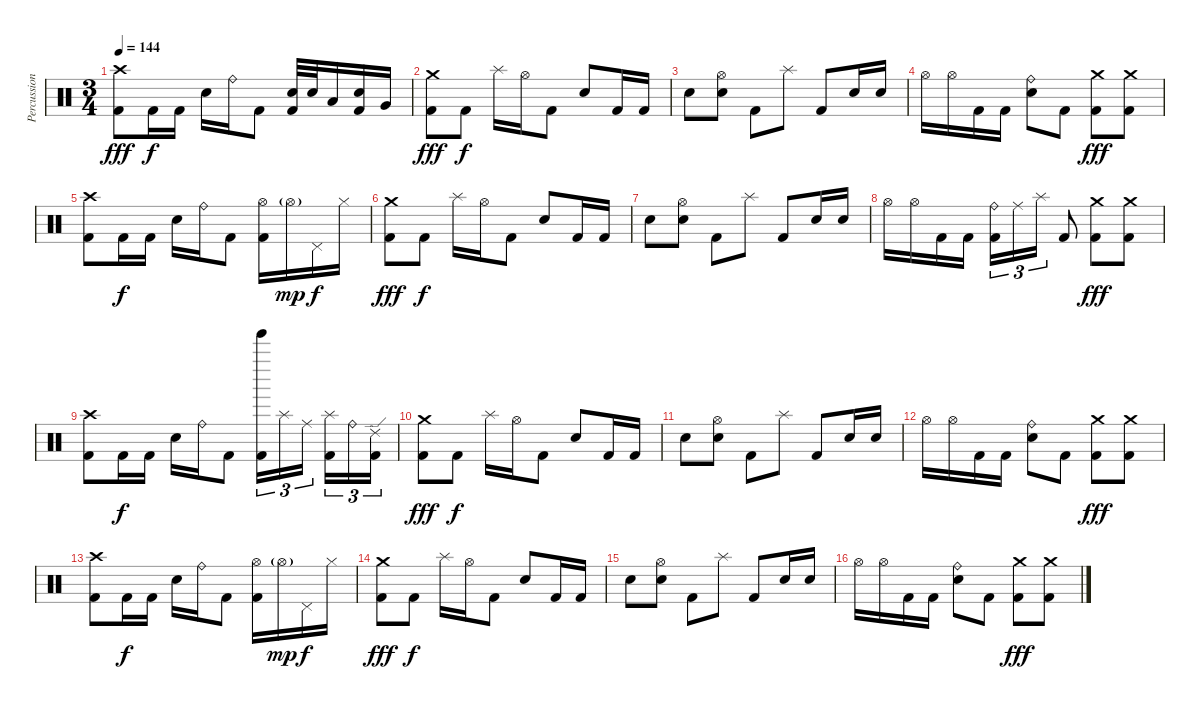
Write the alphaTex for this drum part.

\track ("Percussion" "Percussion") {instrument percussion}
\staff {score}
\articulation defaults
\ts (3 4)
\tempo 144
\clef neutral
\ks c
("Crash high (hit)" "Kick (hit) 2").8{dy fff} "Kick (hit) 2".16{dy f} "Kick (hit) 2".16 "Electric Snare (hit)".16 "Ride (bell)".16 "Kick (hit) 2".8 ("Electric Snare (hit)" "Kick (hit) 2").32 "Electric Snare (hit)".32 "Low Tom (hit)".16 ("Electric Snare (hit)" "Kick (hit) 2").16 "Very Low Tom (hit)".16 |
("Crash medium (hit)" "Kick (hit) 2").8{dy fff} "Kick (hit) 2".8{dy f} "Splash (hit)".16 "Hi-Hat (open)".16 "Kick (hit) 2".8 "Electric Snare (hit)".8 "Kick (hit) 2".16 "Kick (hit) 2".16 |
"Electric Snare (hit)".8 ("Hi-Hat (open)" "Electric Snare (hit)").8 "Kick (hit) 2".8 "Splash (hit)".8 "Kick (hit) 2".8 "Electric Snare (hit)".16 "Electric Snare (hit)".16 |
"Hi-Hat (open)".16 "Hi-Hat (open)".16 "Kick (hit) 2".16 "Kick (hit) 2".16 ("Ride (bell)" "Electric Snare (hit)").8 "Kick (hit) 2".8 ("Crash medium (hit)" "Kick (hit) 2").8{dy fff} ("Crash medium (hit)" "Kick (hit) 2").8 |
("Crash high (hit)" "Kick (hit) 2").8 "Kick (hit) 2".16{dy f} "Kick (hit) 2".16 "Electric Snare (hit)".16 "Ride (bell)".16 "Kick (hit) 2".8 ("Hi-Hat (open)" "Kick (hit) 2").16 "Hi-Hat (open)"{g}.16{dy mp} "Pedal Hi-Hat (hit)".16{dy f} "Hi-Hat (closed)".16 |
("Crash medium (hit)" "Kick (hit) 2").8{dy fff} "Kick (hit) 2".8{dy f} "Splash (hit)".16 "Hi-Hat (open)".16 "Kick (hit) 2".8 "Electric Snare (hit)".8 "Kick (hit) 2".16 "Kick (hit) 2".16 |
"Electric Snare (hit)".8 ("Hi-Hat (open)" "Electric Snare (hit)").8 "Kick (hit) 2".8 "Splash (hit)".8 "Kick (hit) 2".8 "Electric Snare (hit)".16 "Electric Snare (hit)".16 |
"Hi-Hat (open)".16 "Hi-Hat (open)".16 "Kick (hit) 2".16 "Kick (hit) 2".16 ("Ride (bell)" "Kick (hit) 2").16{tu (3 2)} "Ride (middle)".16{tu (3 2)} "Splash (hit)".16{tu (3 2)} "Kick (hit) 2".8 ("Crash medium (hit)" "Kick (hit) 2").8{dy fff} ("Crash medium (hit)" "Kick (hit) 2").8 |
("Crash high (hit)" "Kick (hit) 2").8 "Kick (hit) 2".16{dy f} "Kick (hit) 2".16 "Electric Snare (hit)".16 "Ride (bell)".16 "Kick (hit) 2".8 ("Tinkle Bell (hit)" "Kick (hit) 2").16{tu (3 2)} "Splash (hit)".16{tu (3 2)} "Ride (middle)".16{tu (3 2)} ("Splash (hit)" "Kick (hit) 2").16{tu (3 2)} "Ride (bell)".16{tu (3 2)} ("Ride (edge) 2" "Kick (hit) 2").16{tu (3 2)} |
("Crash medium (hit)" "Kick (hit) 2").8{dy fff} "Kick (hit) 2".8{dy f} "Splash (hit)".16 "Hi-Hat (open)".16 "Kick (hit) 2".8 "Electric Snare (hit)".8 "Kick (hit) 2".16 "Kick (hit) 2".16 |
"Electric Snare (hit)".8 ("Hi-Hat (open)" "Electric Snare (hit)").8 "Kick (hit) 2".8 "Splash (hit)".8 "Kick (hit) 2".8 "Electric Snare (hit)".16 "Electric Snare (hit)".16 |
"Hi-Hat (open)".16 "Hi-Hat (open)".16 "Kick (hit) 2".16 "Kick (hit) 2".16 ("Ride (bell)" "Electric Snare (hit)").8 "Kick (hit) 2".8 ("Crash medium (hit)" "Kick (hit) 2").8{dy fff} ("Crash medium (hit)" "Kick (hit) 2").8 |
("Crash high (hit)" "Kick (hit) 2").8 "Kick (hit) 2".16{dy f} "Kick (hit) 2".16 "Electric Snare (hit)".16 "Ride (bell)".16 "Kick (hit) 2".8 ("Hi-Hat (open)" "Kick (hit) 2").16 "Hi-Hat (open)"{g}.16{dy mp} "Pedal Hi-Hat (hit)".16{dy f} "Hi-Hat (closed)".16 |
("Crash medium (hit)" "Kick (hit) 2").8{dy fff} "Kick (hit) 2".8{dy f} "Splash (hit)".16 "Hi-Hat (open)".16 "Kick (hit) 2".8 "Electric Snare (hit)".8 "Kick (hit) 2".16 "Kick (hit) 2".16 |
"Electric Snare (hit)".8 ("Hi-Hat (open)" "Electric Snare (hit)").8 "Kick (hit) 2".8 "Splash (hit)".8 "Kick (hit) 2".8 "Electric Snare (hit)".16 "Electric Snare (hit)".16 |
"Hi-Hat (open)".16 "Hi-Hat (open)".16 "Kick (hit) 2".16 "Kick (hit) 2".16 ("Ride (bell)" "Electric Snare (hit)").8 "Kick (hit) 2".8 ("Crash medium (hit)" "Kick (hit) 2").8{dy fff} ("Crash medium (hit)" "Kick (hit) 2").8
